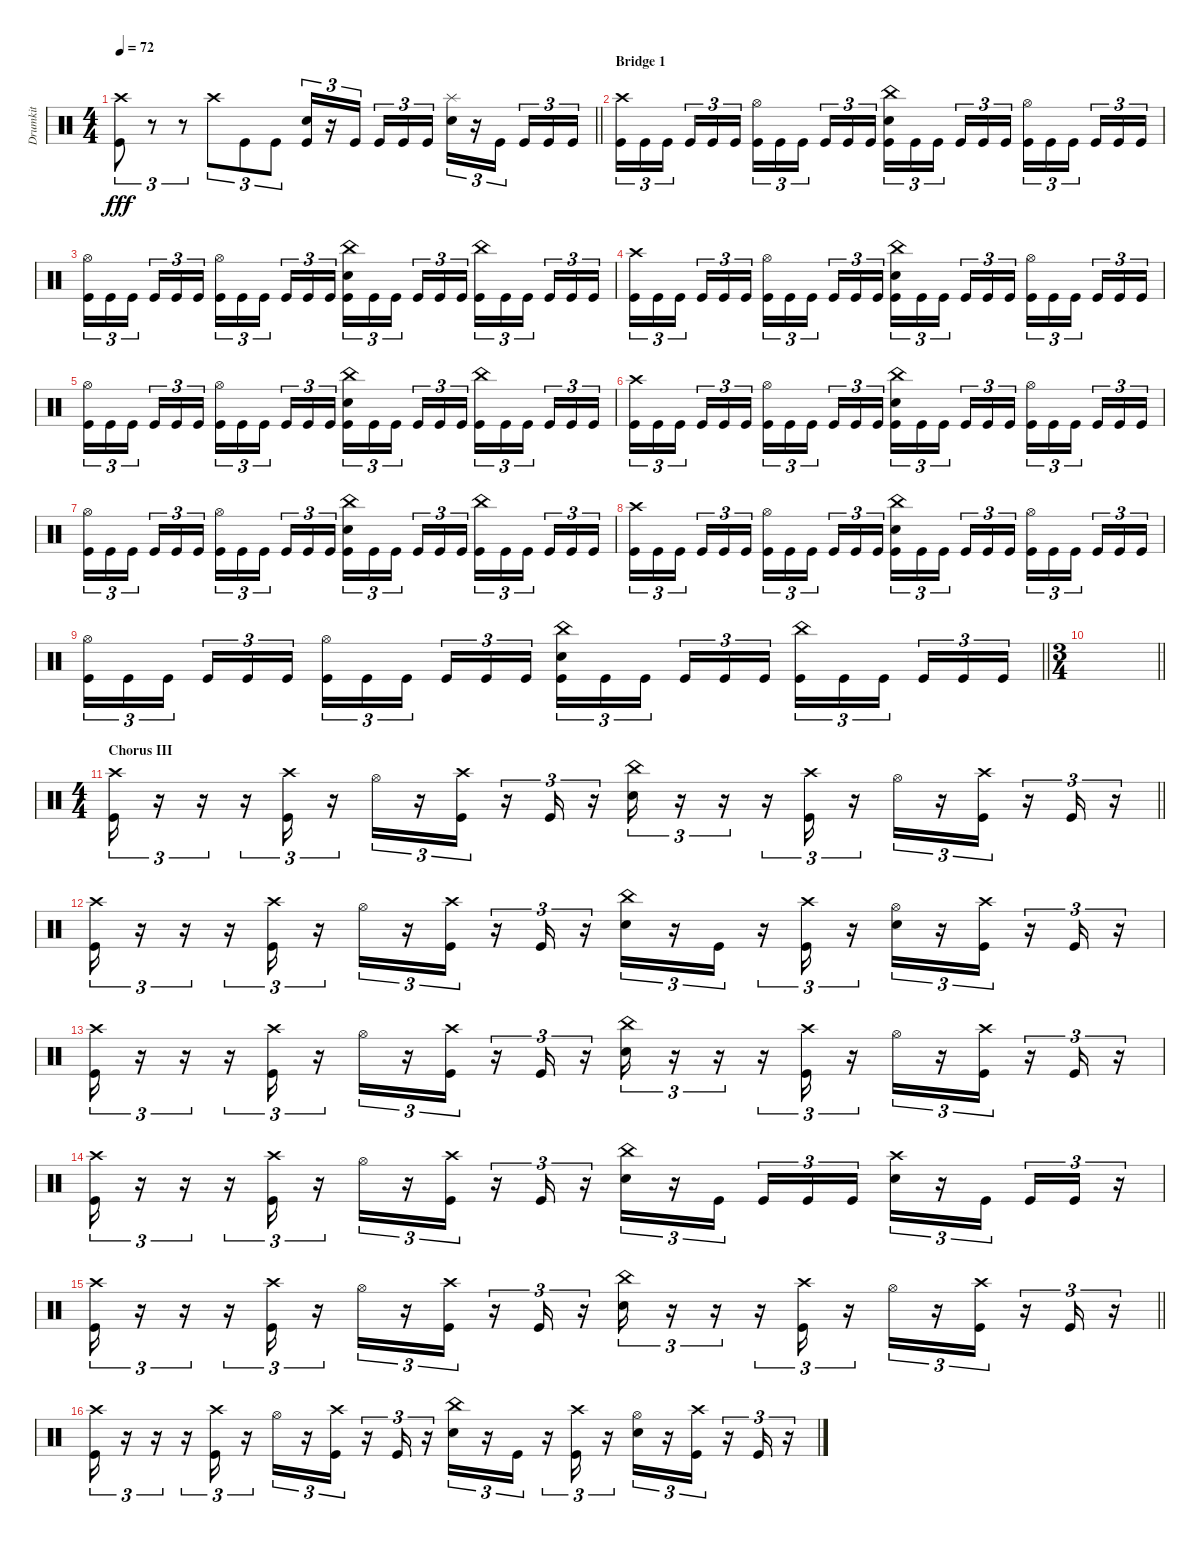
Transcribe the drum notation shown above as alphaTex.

\track ("Drumkit" "Drumkit") {instrument percussion}
\staff {score}
\articulation defaults
\ts (4 4)
\tempo 72
\clef neutral
\barLineRight lightlight
\ks c
("Kick (hit)" "Crash high (hit)").8{tu (3 2) dy fff} r.8{tu (3 2)} r.8{tu (3 2)} "Crash high (hit)".8{tu (3 2)} "Kick (hit)".8{tu (3 2)} "Kick (hit)".8{tu (3 2)} ("Kick (hit)" "Snare (hit) 2").16{tu (3 2)} r.16{tu (3 2)} "Kick (hit)".16{tu (3 2) beam splitsecondary} "Kick (hit)".16{tu (3 2)} "Kick (hit)".16{tu (3 2)} "Kick (hit)".16{tu (3 2)} ("Snare (hit) 2" "Splash (hit)").16{tu (3 2)} r.16{tu (3 2)} "Kick (hit)".16{tu (3 2) beam splitsecondary} "Kick (hit)".16{tu (3 2)} "Kick (hit)".16{tu (3 2)} "Kick (hit)".16{tu (3 2)} |
\section ("" "Bridge 1")
("Kick (hit)" "Crash high (hit)").16{tu (3 2)} "Kick (hit)".16{tu (3 2)} "Kick (hit)".16{tu (3 2) beam splitsecondary} "Kick (hit)".16{tu (3 2)} "Kick (hit)".16{tu (3 2)} "Kick (hit)".16{tu (3 2)} ("Kick (hit)" "Hi-Hat (open)").16{tu (3 2)} "Kick (hit)".16{tu (3 2)} "Kick (hit)".16{tu (3 2) beam splitsecondary} "Kick (hit)".16{tu (3 2)} "Kick (hit)".16{tu (3 2)} "Kick (hit)".16{tu (3 2)} ("Kick (hit)" "Snare (hit) 2" "China (hit)").16{tu (3 2)} "Kick (hit)".16{tu (3 2)} "Kick (hit)".16{tu (3 2) beam splitsecondary} "Kick (hit)".16{tu (3 2)} "Kick (hit)".16{tu (3 2)} "Kick (hit)".16{tu (3 2)} ("Kick (hit)" "Hi-Hat (open)").16{tu (3 2)} "Kick (hit)".16{tu (3 2)} "Kick (hit)".16{tu (3 2) beam splitsecondary} "Kick (hit)".16{tu (3 2)} "Kick (hit)".16{tu (3 2)} "Kick (hit)".16{tu (3 2)} |
("Kick (hit)" "Hi-Hat (open)").16{tu (3 2)} "Kick (hit)".16{tu (3 2)} "Kick (hit)".16{tu (3 2) beam splitsecondary} "Kick (hit)".16{tu (3 2)} "Kick (hit)".16{tu (3 2)} "Kick (hit)".16{tu (3 2)} ("Kick (hit)" "Hi-Hat (open)").16{tu (3 2)} "Kick (hit)".16{tu (3 2)} "Kick (hit)".16{tu (3 2) beam splitsecondary} "Kick (hit)".16{tu (3 2)} "Kick (hit)".16{tu (3 2)} "Kick (hit)".16{tu (3 2)} ("Kick (hit)" "Snare (hit) 2" "China (hit)").16{tu (3 2)} "Kick (hit)".16{tu (3 2)} "Kick (hit)".16{tu (3 2) beam splitsecondary} "Kick (hit)".16{tu (3 2)} "Kick (hit)".16{tu (3 2)} "Kick (hit)".16{tu (3 2)} ("Kick (hit)" "China (hit)").16{tu (3 2)} "Kick (hit)".16{tu (3 2)} "Kick (hit)".16{tu (3 2) beam splitsecondary} "Kick (hit)".16{tu (3 2)} "Kick (hit)".16{tu (3 2)} "Kick (hit)".16{tu (3 2)} |
("Kick (hit)" "Crash high (hit)").16{tu (3 2)} "Kick (hit)".16{tu (3 2)} "Kick (hit)".16{tu (3 2) beam splitsecondary} "Kick (hit)".16{tu (3 2)} "Kick (hit)".16{tu (3 2)} "Kick (hit)".16{tu (3 2)} ("Kick (hit)" "Hi-Hat (open)").16{tu (3 2)} "Kick (hit)".16{tu (3 2)} "Kick (hit)".16{tu (3 2) beam splitsecondary} "Kick (hit)".16{tu (3 2)} "Kick (hit)".16{tu (3 2)} "Kick (hit)".16{tu (3 2)} ("Kick (hit)" "Snare (hit) 2" "China (hit)").16{tu (3 2)} "Kick (hit)".16{tu (3 2)} "Kick (hit)".16{tu (3 2) beam splitsecondary} "Kick (hit)".16{tu (3 2)} "Kick (hit)".16{tu (3 2)} "Kick (hit)".16{tu (3 2)} ("Kick (hit)" "Hi-Hat (open)").16{tu (3 2)} "Kick (hit)".16{tu (3 2)} "Kick (hit)".16{tu (3 2) beam splitsecondary} "Kick (hit)".16{tu (3 2)} "Kick (hit)".16{tu (3 2)} "Kick (hit)".16{tu (3 2)} |
("Kick (hit)" "Hi-Hat (open)").16{tu (3 2)} "Kick (hit)".16{tu (3 2)} "Kick (hit)".16{tu (3 2) beam splitsecondary} "Kick (hit)".16{tu (3 2)} "Kick (hit)".16{tu (3 2)} "Kick (hit)".16{tu (3 2)} ("Kick (hit)" "Hi-Hat (open)").16{tu (3 2)} "Kick (hit)".16{tu (3 2)} "Kick (hit)".16{tu (3 2) beam splitsecondary} "Kick (hit)".16{tu (3 2)} "Kick (hit)".16{tu (3 2)} "Kick (hit)".16{tu (3 2)} ("Kick (hit)" "Snare (hit) 2" "China (hit)").16{tu (3 2)} "Kick (hit)".16{tu (3 2)} "Kick (hit)".16{tu (3 2) beam splitsecondary} "Kick (hit)".16{tu (3 2)} "Kick (hit)".16{tu (3 2)} "Kick (hit)".16{tu (3 2)} ("Kick (hit)" "China (hit)").16{tu (3 2)} "Kick (hit)".16{tu (3 2)} "Kick (hit)".16{tu (3 2) beam splitsecondary} "Kick (hit)".16{tu (3 2)} "Kick (hit)".16{tu (3 2)} "Kick (hit)".16{tu (3 2)} |
("Kick (hit)" "Crash high (hit)").16{tu (3 2)} "Kick (hit)".16{tu (3 2)} "Kick (hit)".16{tu (3 2) beam splitsecondary} "Kick (hit)".16{tu (3 2)} "Kick (hit)".16{tu (3 2)} "Kick (hit)".16{tu (3 2)} ("Kick (hit)" "Hi-Hat (open)").16{tu (3 2)} "Kick (hit)".16{tu (3 2)} "Kick (hit)".16{tu (3 2) beam splitsecondary} "Kick (hit)".16{tu (3 2)} "Kick (hit)".16{tu (3 2)} "Kick (hit)".16{tu (3 2)} ("Kick (hit)" "Snare (hit) 2" "China (hit)").16{tu (3 2)} "Kick (hit)".16{tu (3 2)} "Kick (hit)".16{tu (3 2) beam splitsecondary} "Kick (hit)".16{tu (3 2)} "Kick (hit)".16{tu (3 2)} "Kick (hit)".16{tu (3 2)} ("Kick (hit)" "Hi-Hat (open)").16{tu (3 2)} "Kick (hit)".16{tu (3 2)} "Kick (hit)".16{tu (3 2) beam splitsecondary} "Kick (hit)".16{tu (3 2)} "Kick (hit)".16{tu (3 2)} "Kick (hit)".16{tu (3 2)} |
("Kick (hit)" "Hi-Hat (open)").16{tu (3 2)} "Kick (hit)".16{tu (3 2)} "Kick (hit)".16{tu (3 2) beam splitsecondary} "Kick (hit)".16{tu (3 2)} "Kick (hit)".16{tu (3 2)} "Kick (hit)".16{tu (3 2)} ("Kick (hit)" "Hi-Hat (open)").16{tu (3 2)} "Kick (hit)".16{tu (3 2)} "Kick (hit)".16{tu (3 2) beam splitsecondary} "Kick (hit)".16{tu (3 2)} "Kick (hit)".16{tu (3 2)} "Kick (hit)".16{tu (3 2)} ("Kick (hit)" "Snare (hit) 2" "China (hit)").16{tu (3 2)} "Kick (hit)".16{tu (3 2)} "Kick (hit)".16{tu (3 2) beam splitsecondary} "Kick (hit)".16{tu (3 2)} "Kick (hit)".16{tu (3 2)} "Kick (hit)".16{tu (3 2)} ("Kick (hit)" "China (hit)").16{tu (3 2)} "Kick (hit)".16{tu (3 2)} "Kick (hit)".16{tu (3 2) beam splitsecondary} "Kick (hit)".16{tu (3 2)} "Kick (hit)".16{tu (3 2)} "Kick (hit)".16{tu (3 2)} |
("Kick (hit)" "Crash high (hit)").16{tu (3 2)} "Kick (hit)".16{tu (3 2)} "Kick (hit)".16{tu (3 2) beam splitsecondary} "Kick (hit)".16{tu (3 2)} "Kick (hit)".16{tu (3 2)} "Kick (hit)".16{tu (3 2)} ("Kick (hit)" "Hi-Hat (open)").16{tu (3 2)} "Kick (hit)".16{tu (3 2)} "Kick (hit)".16{tu (3 2) beam splitsecondary} "Kick (hit)".16{tu (3 2)} "Kick (hit)".16{tu (3 2)} "Kick (hit)".16{tu (3 2)} ("Kick (hit)" "Snare (hit) 2" "China (hit)").16{tu (3 2)} "Kick (hit)".16{tu (3 2)} "Kick (hit)".16{tu (3 2) beam splitsecondary} "Kick (hit)".16{tu (3 2)} "Kick (hit)".16{tu (3 2)} "Kick (hit)".16{tu (3 2)} ("Kick (hit)" "Hi-Hat (open)").16{tu (3 2)} "Kick (hit)".16{tu (3 2)} "Kick (hit)".16{tu (3 2) beam splitsecondary} "Kick (hit)".16{tu (3 2)} "Kick (hit)".16{tu (3 2)} "Kick (hit)".16{tu (3 2)} |
\barLineRight lightlight
("Kick (hit)" "Hi-Hat (open)").16{tu (3 2)} "Kick (hit)".16{tu (3 2)} "Kick (hit)".16{tu (3 2) beam splitsecondary} "Kick (hit)".16{tu (3 2)} "Kick (hit)".16{tu (3 2)} "Kick (hit)".16{tu (3 2)} ("Kick (hit)" "Hi-Hat (open)").16{tu (3 2)} "Kick (hit)".16{tu (3 2)} "Kick (hit)".16{tu (3 2) beam splitsecondary} "Kick (hit)".16{tu (3 2)} "Kick (hit)".16{tu (3 2)} "Kick (hit)".16{tu (3 2)} ("Kick (hit)" "Snare (hit) 2" "China (hit)").16{tu (3 2)} "Kick (hit)".16{tu (3 2)} "Kick (hit)".16{tu (3 2) beam splitsecondary} "Kick (hit)".16{tu (3 2)} "Kick (hit)".16{tu (3 2)} "Kick (hit)".16{tu (3 2)} ("Kick (hit)" "China (hit)").16{tu (3 2)} "Kick (hit)".16{tu (3 2)} "Kick (hit)".16{tu (3 2) beam splitsecondary} "Kick (hit)".16{tu (3 2)} "Kick (hit)".16{tu (3 2)} "Kick (hit)".16{tu (3 2)} |
\ts (3 4)
\barLineRight lightlight
|
\ts (4 4)
\section ("" "Chorus III")
\barLineRight lightlight
("Kick (hit)" "Crash high (hit)").16{tu (3 2)} r.16{tu (3 2)} r.16{tu (3 2)} r.16{tu (3 2)} ("Kick (hit)" "Crash high (hit)").16{tu (3 2)} r.16{tu (3 2)} "Hi-Hat (open)".16{tu (3 2)} r.16{tu (3 2)} ("Kick (hit)" "Crash high (hit)").16{tu (3 2)} r.16{tu (3 2)} "Kick (hit)".16{tu (3 2)} r.16{tu (3 2)} ("Snare (hit) 2" "China (hit)").16{tu (3 2)} r.16{tu (3 2)} r.16{tu (3 2)} r.16{tu (3 2)} ("Kick (hit)" "Crash high (hit)").16{tu (3 2)} r.16{tu (3 2)} "Hi-Hat (open)".16{tu (3 2)} r.16{tu (3 2)} ("Kick (hit)" "Crash high (hit)").16{tu (3 2)} r.16{tu (3 2)} "Kick (hit)".16{tu (3 2)} r.16{tu (3 2)} |
\section ("" "")
("Kick (hit)" "Crash high (hit)").16{tu (3 2)} r.16{tu (3 2)} r.16{tu (3 2)} r.16{tu (3 2)} ("Kick (hit)" "Crash high (hit)").16{tu (3 2)} r.16{tu (3 2)} "Hi-Hat (open)".16{tu (3 2)} r.16{tu (3 2)} ("Kick (hit)" "Crash high (hit)").16{tu (3 2)} r.16{tu (3 2)} "Kick (hit)".16{tu (3 2)} r.16{tu (3 2)} ("Snare (hit) 2" "China (hit)").16{tu (3 2)} r.16{tu (3 2)} "Kick (hit)".16{tu (3 2)} r.16{tu (3 2)} ("Kick (hit)" "Crash high (hit)").16{tu (3 2)} r.16{tu (3 2)} ("Hi-Hat (open)" "Snare (hit) 2").16{tu (3 2)} r.16{tu (3 2)} ("Kick (hit)" "Crash high (hit)").16{tu (3 2)} r.16{tu (3 2)} "Kick (hit)".16{tu (3 2)} r.16{tu (3 2)} |
("Kick (hit)" "Crash high (hit)").16{tu (3 2)} r.16{tu (3 2)} r.16{tu (3 2)} r.16{tu (3 2)} ("Kick (hit)" "Crash high (hit)").16{tu (3 2)} r.16{tu (3 2)} "Hi-Hat (open)".16{tu (3 2)} r.16{tu (3 2)} ("Kick (hit)" "Crash high (hit)").16{tu (3 2)} r.16{tu (3 2)} "Kick (hit)".16{tu (3 2)} r.16{tu (3 2)} ("Snare (hit) 2" "China (hit)").16{tu (3 2)} r.16{tu (3 2)} r.16{tu (3 2)} r.16{tu (3 2)} ("Kick (hit)" "Crash high (hit)").16{tu (3 2)} r.16{tu (3 2)} "Hi-Hat (open)".16{tu (3 2)} r.16{tu (3 2)} ("Kick (hit)" "Crash high (hit)").16{tu (3 2)} r.16{tu (3 2)} "Kick (hit)".16{tu (3 2)} r.16{tu (3 2)} |
("Kick (hit)" "Crash high (hit)").16{tu (3 2)} r.16{tu (3 2)} r.16{tu (3 2)} r.16{tu (3 2)} ("Kick (hit)" "Crash high (hit)").16{tu (3 2)} r.16{tu (3 2)} "Hi-Hat (open)".16{tu (3 2)} r.16{tu (3 2)} ("Kick (hit)" "Crash high (hit)").16{tu (3 2)} r.16{tu (3 2)} "Kick (hit)".16{tu (3 2)} r.16{tu (3 2)} ("Snare (hit) 2" "China (hit)").16{tu (3 2)} r.16{tu (3 2)} "Kick (hit)".16{tu (3 2) beam splitsecondary} "Kick (hit)".16{tu (3 2)} "Kick (hit)".16{tu (3 2)} "Kick (hit)".16{tu (3 2)} ("Crash high (hit)" "Snare (hit) 2").16{tu (3 2)} r.16{tu (3 2)} "Kick (hit)".16{tu (3 2) beam splitsecondary} "Kick (hit)".16{tu (3 2)} "Kick (hit)".16{tu (3 2)} r.16{tu (3 2)} |
\barLineRight lightlight
("Kick (hit)" "Crash high (hit)").16{tu (3 2)} r.16{tu (3 2)} r.16{tu (3 2)} r.16{tu (3 2)} ("Kick (hit)" "Crash high (hit)").16{tu (3 2)} r.16{tu (3 2)} "Hi-Hat (open)".16{tu (3 2)} r.16{tu (3 2)} ("Kick (hit)" "Crash high (hit)").16{tu (3 2)} r.16{tu (3 2)} "Kick (hit)".16{tu (3 2)} r.16{tu (3 2)} ("Snare (hit) 2" "China (hit)").16{tu (3 2)} r.16{tu (3 2)} r.16{tu (3 2)} r.16{tu (3 2)} ("Kick (hit)" "Crash high (hit)").16{tu (3 2)} r.16{tu (3 2)} "Hi-Hat (open)".16{tu (3 2)} r.16{tu (3 2)} ("Kick (hit)" "Crash high (hit)").16{tu (3 2)} r.16{tu (3 2)} "Kick (hit)".16{tu (3 2)} r.16{tu (3 2)} |
("Kick (hit)" "Crash high (hit)").16{tu (3 2)} r.16{tu (3 2)} r.16{tu (3 2)} r.16{tu (3 2)} ("Kick (hit)" "Crash high (hit)").16{tu (3 2)} r.16{tu (3 2)} "Hi-Hat (open)".16{tu (3 2)} r.16{tu (3 2)} ("Kick (hit)" "Crash high (hit)").16{tu (3 2)} r.16{tu (3 2)} "Kick (hit)".16{tu (3 2)} r.16{tu (3 2)} ("Snare (hit) 2" "China (hit)").16{tu (3 2)} r.16{tu (3 2)} "Kick (hit)".16{tu (3 2)} r.16{tu (3 2)} ("Kick (hit)" "Crash high (hit)").16{tu (3 2)} r.16{tu (3 2)} ("Hi-Hat (open)" "Snare (hit) 2").16{tu (3 2)} r.16{tu (3 2)} ("Kick (hit)" "Crash high (hit)").16{tu (3 2)} r.16{tu (3 2)} "Kick (hit)".16{tu (3 2)} r.16{tu (3 2)}
